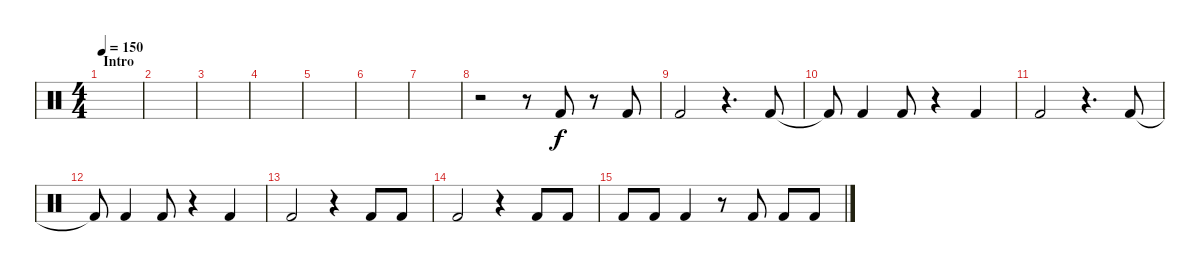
\track "" {instrument percussion}
\staff {score}
\articulation defaults
\ts (4 4)
\section ("" "Intro")
\tempo 150
\clef neutral
\ks c
|
|
|
|
|
|
|
r.2 r.8 "Kick (hit) 2".8 r.8 "Kick (hit) 2".8 |
"Kick (hit) 2".2 r.4{d} "Kick (hit) 2".8 |
"Kick (hit) 2"{t}.8 "Kick (hit) 2".4 "Kick (hit) 2".8 r.4 "Kick (hit) 2".4 |
"Kick (hit) 2".2 r.4{d} "Kick (hit) 2".8 |
"Kick (hit) 2"{t}.8 "Kick (hit) 2".4 "Kick (hit) 2".8 r.4 "Kick (hit) 2".4 |
"Kick (hit) 2".2 r.4 "Kick (hit) 2".8 "Kick (hit) 2".8 |
"Kick (hit) 2".2 r.4 "Kick (hit) 2".8 "Kick (hit) 2".8 |
"Kick (hit) 2".8 "Kick (hit) 2".8 "Kick (hit) 2".4 r.8 "Kick (hit) 2".8 "Kick (hit) 2".8 "Kick (hit) 2".8
